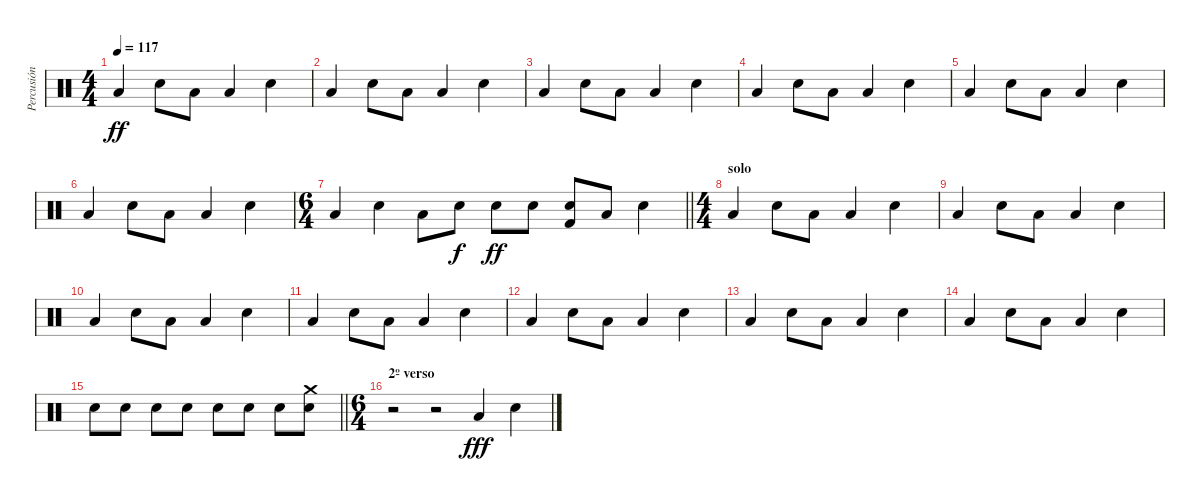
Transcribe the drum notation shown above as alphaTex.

\track ("Percusión" "Percusión") {instrument percussion}
\staff {score}
\articulation defaults
\ts (4 4)
\tempo 117
\clef neutral
\ks c "Low Floor Tom (hit)".4{dy ff} "Snare (hit) 2".8 "Low Floor Tom (hit)".8 "Low Floor Tom (hit)".4 "Snare (hit) 2".4
|
"Low Floor Tom (hit)".4 "Snare (hit) 2".8 "Low Floor Tom (hit)".8 "Low Floor Tom (hit)".4 "Snare (hit) 2".4 |
"Low Floor Tom (hit)".4 "Snare (hit) 2".8 "Low Floor Tom (hit)".8 "Low Floor Tom (hit)".4 "Snare (hit) 2".4 |
"Low Floor Tom (hit)".4 "Snare (hit) 2".8 "Low Floor Tom (hit)".8 "Low Floor Tom (hit)".4 "Snare (hit) 2".4 |
"Low Floor Tom (hit)".4 "Snare (hit) 2".8 "Low Floor Tom (hit)".8 "Low Floor Tom (hit)".4 "Snare (hit) 2".4 |
"Low Floor Tom (hit)".4 "Snare (hit) 2".8 "Low Floor Tom (hit)".8 "Low Floor Tom (hit)".4 "Snare (hit) 2".4 |
\ts (6 4)
\barLineRight lightlight "Low Floor Tom (hit)".4 "Snare (hit) 2".4 "Low Floor Tom (hit)".8 "Snare (hit) 2".8{dy f} "Snare (hit) 2".8{dy ff} "Snare (hit) 2".8
("Kick (hit) 2" "Electric Snare (hit)").8 "Low Floor Tom (hit)".8 "Snare (hit) 2".4 |
\ts (4 4)
\section ("" "solo")
"Low Floor Tom (hit)".4 "Snare (hit) 2".8 "Low Floor Tom (hit)".8 "Low Floor Tom (hit)".4 "Snare (hit) 2".4 |
"Low Floor Tom (hit)".4 "Snare (hit) 2".8 "Low Floor Tom (hit)".8 "Low Floor Tom (hit)".4 "Snare (hit) 2".4 |
"Low Floor Tom (hit)".4 "Snare (hit) 2".8 "Low Floor Tom (hit)".8 "Low Floor Tom (hit)".4 "Snare (hit) 2".4 |
"Low Floor Tom (hit)".4 "Snare (hit) 2".8 "Low Floor Tom (hit)".8 "Low Floor Tom (hit)".4 "Snare (hit) 2".4 |
"Low Floor Tom (hit)".4 "Snare (hit) 2".8 "Low Floor Tom (hit)".8 "Low Floor Tom (hit)".4 "Snare (hit) 2".4 |
"Low Floor Tom (hit)".4 "Snare (hit) 2".8 "Low Floor Tom (hit)".8 "Low Floor Tom (hit)".4 "Snare (hit) 2".4 |
"Low Floor Tom (hit)".4 "Snare (hit) 2".8 "Low Floor Tom (hit)".8 "Low Floor Tom (hit)".4 "Snare (hit) 2".4 |
\barLineRight lightlight "Snare (hit) 2".8 "Snare (hit) 2".8 "Snare (hit) 2".8 "Snare (hit) 2".8 "Snare (hit) 2".8 "Snare (hit) 2".8 "Snare (hit) 2".8
("Snare (hit) 2" "Crash medium (hit)").8 |
\ts (6 4)
\section ("" "2º verso")
r.2 r.2 "Low Floor Tom (hit)".4{dy fff} "Snare (hit) 2".4
